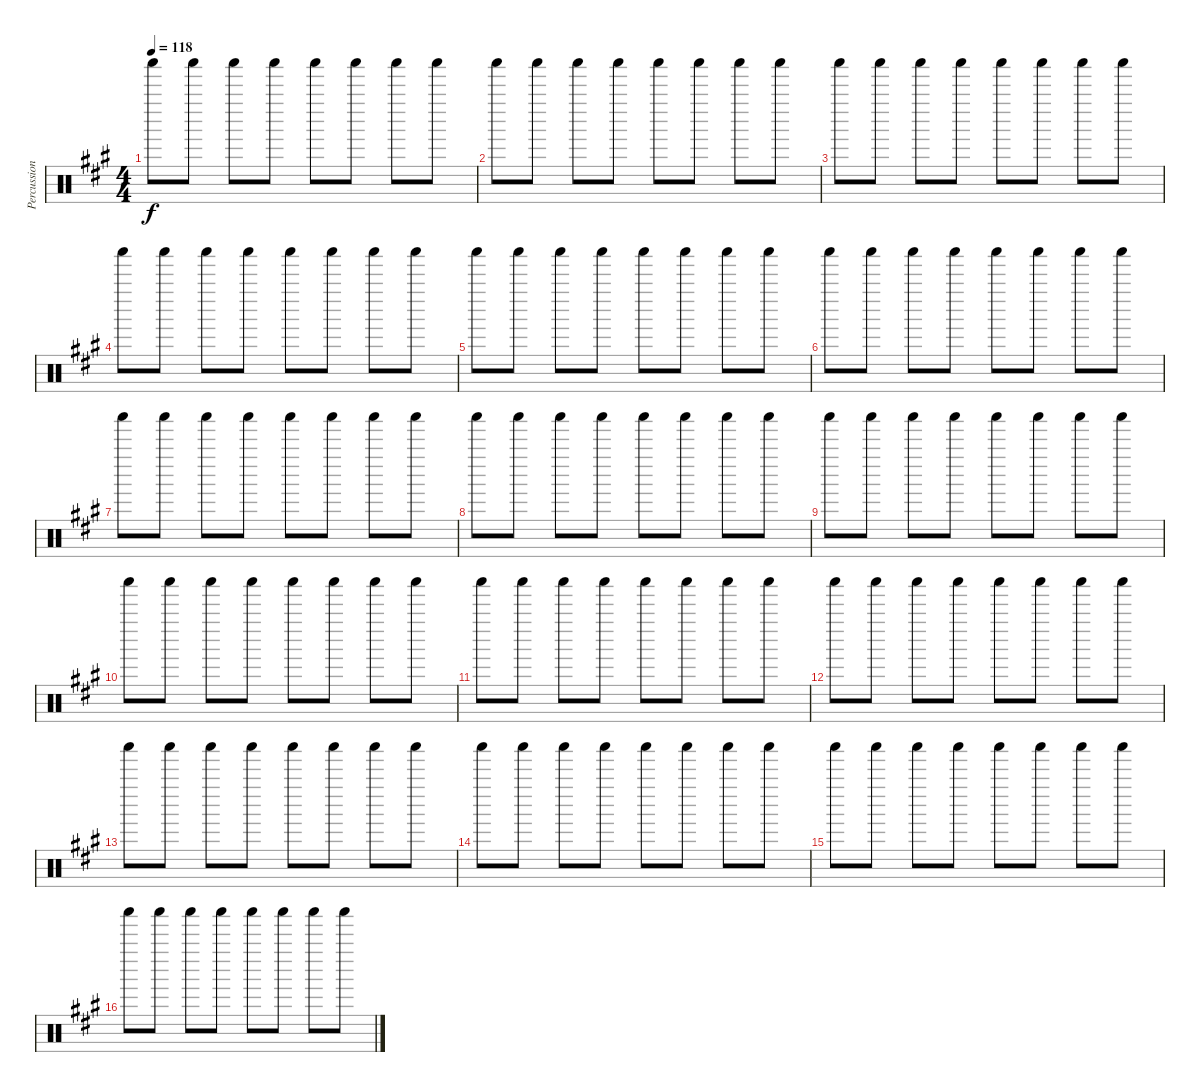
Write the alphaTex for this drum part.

\track ("Percussions" "Percussion") {instrument percussion}
\staff {score}
\articulation defaults
\ts (4 4)
\tempo 118
\clef neutral
\ks f#minor "Shaker (hit)".8{dy f} "Shaker (hit)".8 "Shaker (hit)".8 "Shaker (hit)".8 "Shaker (hit)".8 "Shaker (hit)".8 "Shaker (hit)".8 "Shaker (hit)".8
|
"Shaker (hit)".8 "Shaker (hit)".8 "Shaker (hit)".8 "Shaker (hit)".8 "Shaker (hit)".8 "Shaker (hit)".8 "Shaker (hit)".8 "Shaker (hit)".8 |
"Shaker (hit)".8 "Shaker (hit)".8 "Shaker (hit)".8 "Shaker (hit)".8 "Shaker (hit)".8 "Shaker (hit)".8 "Shaker (hit)".8 "Shaker (hit)".8 |
"Shaker (hit)".8 "Shaker (hit)".8 "Shaker (hit)".8 "Shaker (hit)".8 "Shaker (hit)".8 "Shaker (hit)".8 "Shaker (hit)".8 "Shaker (hit)".8 |
"Shaker (hit)".8 "Shaker (hit)".8 "Shaker (hit)".8 "Shaker (hit)".8 "Shaker (hit)".8 "Shaker (hit)".8 "Shaker (hit)".8 "Shaker (hit)".8 |
"Shaker (hit)".8 "Shaker (hit)".8 "Shaker (hit)".8 "Shaker (hit)".8 "Shaker (hit)".8 "Shaker (hit)".8 "Shaker (hit)".8 "Shaker (hit)".8 |
"Shaker (hit)".8 "Shaker (hit)".8 "Shaker (hit)".8 "Shaker (hit)".8 "Shaker (hit)".8 "Shaker (hit)".8 "Shaker (hit)".8 "Shaker (hit)".8 |
"Shaker (hit)".8 "Shaker (hit)".8 "Shaker (hit)".8 "Shaker (hit)".8 "Shaker (hit)".8 "Shaker (hit)".8 "Shaker (hit)".8 "Shaker (hit)".8 |
"Shaker (hit)".8 "Shaker (hit)".8 "Shaker (hit)".8 "Shaker (hit)".8 "Shaker (hit)".8 "Shaker (hit)".8 "Shaker (hit)".8 "Shaker (hit)".8 |
"Shaker (hit)".8 "Shaker (hit)".8 "Shaker (hit)".8 "Shaker (hit)".8 "Shaker (hit)".8 "Shaker (hit)".8 "Shaker (hit)".8 "Shaker (hit)".8 |
"Shaker (hit)".8 "Shaker (hit)".8 "Shaker (hit)".8 "Shaker (hit)".8 "Shaker (hit)".8 "Shaker (hit)".8 "Shaker (hit)".8 "Shaker (hit)".8 |
"Shaker (hit)".8 "Shaker (hit)".8 "Shaker (hit)".8 "Shaker (hit)".8 "Shaker (hit)".8 "Shaker (hit)".8 "Shaker (hit)".8 "Shaker (hit)".8 |
"Shaker (hit)".8 "Shaker (hit)".8 "Shaker (hit)".8 "Shaker (hit)".8 "Shaker (hit)".8 "Shaker (hit)".8 "Shaker (hit)".8 "Shaker (hit)".8 |
"Shaker (hit)".8 "Shaker (hit)".8 "Shaker (hit)".8 "Shaker (hit)".8 "Shaker (hit)".8 "Shaker (hit)".8 "Shaker (hit)".8 "Shaker (hit)".8 |
"Shaker (hit)".8 "Shaker (hit)".8 "Shaker (hit)".8 "Shaker (hit)".8 "Shaker (hit)".8 "Shaker (hit)".8 "Shaker (hit)".8 "Shaker (hit)".8 |
"Shaker (hit)".8 "Shaker (hit)".8 "Shaker (hit)".8 "Shaker (hit)".8 "Shaker (hit)".8 "Shaker (hit)".8 "Shaker (hit)".8 "Shaker (hit)".8
